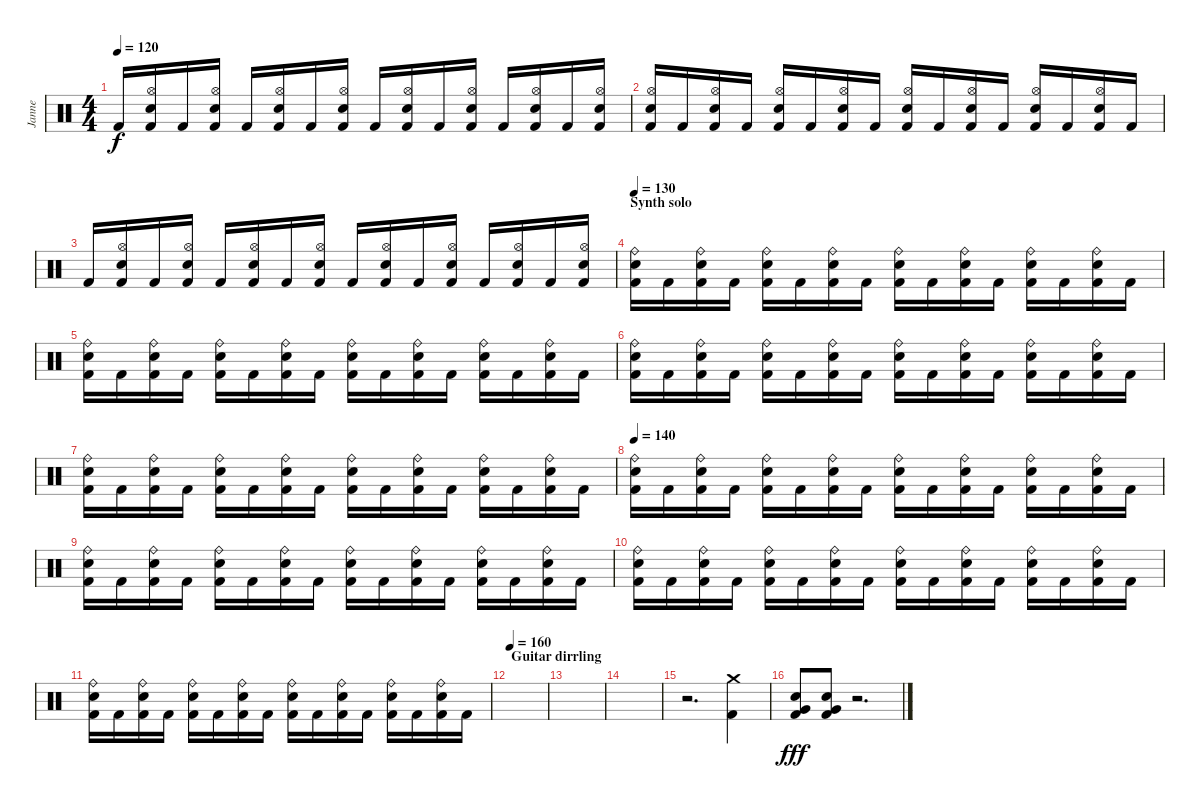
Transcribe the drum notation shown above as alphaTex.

\track ("Janne" "Janne") {instrument percussion}
\staff {score}
\articulation defaults
\ts (4 4)
\tempo 120
\clef neutral
\ks c "Kick (hit) 2".16{dy f}
("Hi-Hat (open)" "Electric Snare (hit)" "Kick (hit) 2").16 "Kick (hit) 2".16 ("Hi-Hat (open)" "Electric Snare (hit)" "Kick (hit) 2").16 "Kick (hit) 2".16 ("Hi-Hat (open)" "Electric Snare (hit)" "Kick (hit) 2").16 "Kick (hit) 2".16 ("Hi-Hat (open)" "Electric Snare (hit)" "Kick (hit) 2").16 "Kick (hit) 2".16 ("Hi-Hat (open)" "Electric Snare (hit)" "Kick (hit) 2").16 "Kick (hit) 2".16 ("Hi-Hat (open)" "Electric Snare (hit)" "Kick (hit) 2").16 "Kick (hit) 2".16 ("Hi-Hat (open)" "Electric Snare (hit)" "Kick (hit) 2").16 "Kick (hit) 2".16 ("Hi-Hat (open)" "Electric Snare (hit)" "Kick (hit) 2").16 |
("Hi-Hat (open)" "Electric Snare (hit)" "Kick (hit) 2").16 "Kick (hit) 2".16 ("Hi-Hat (open)" "Electric Snare (hit)" "Kick (hit) 2").16 "Kick (hit) 2".16 ("Hi-Hat (open)" "Electric Snare (hit)" "Kick (hit) 2").16 "Kick (hit) 2".16 ("Hi-Hat (open)" "Electric Snare (hit)" "Kick (hit) 2").16 "Kick (hit) 2".16 ("Hi-Hat (open)" "Electric Snare (hit)" "Kick (hit) 2").16 "Kick (hit) 2".16 ("Hi-Hat (open)" "Electric Snare (hit)" "Kick (hit) 2").16 "Kick (hit) 2".16 ("Hi-Hat (open)" "Electric Snare (hit)" "Kick (hit) 2").16 "Kick (hit) 2".16 ("Hi-Hat (open)" "Electric Snare (hit)" "Kick (hit) 2").16 "Kick (hit) 2".16 |
"Kick (hit) 2".16 ("Hi-Hat (open)" "Electric Snare (hit)" "Kick (hit) 2").16 "Kick (hit) 2".16 ("Hi-Hat (open)" "Electric Snare (hit)" "Kick (hit) 2").16 "Kick (hit) 2".16 ("Hi-Hat (open)" "Electric Snare (hit)" "Kick (hit) 2").16 "Kick (hit) 2".16 ("Hi-Hat (open)" "Electric Snare (hit)" "Kick (hit) 2").16 "Kick (hit) 2".16 ("Hi-Hat (open)" "Electric Snare (hit)" "Kick (hit) 2").16 "Kick (hit) 2".16 ("Hi-Hat (open)" "Electric Snare (hit)" "Kick (hit) 2").16 "Kick (hit) 2".16 ("Hi-Hat (open)" "Electric Snare (hit)" "Kick (hit) 2").16 "Kick (hit) 2".16 ("Hi-Hat (open)" "Electric Snare (hit)" "Kick (hit) 2").16 |
\section ("" "Synth solo")
\tempo 130
("Ride (bell)" "Electric Snare (hit)" "Kick (hit) 2").16 "Kick (hit) 2".16 ("Ride (bell)" "Electric Snare (hit)" "Kick (hit) 2").16 "Kick (hit) 2".16 ("Ride (bell)" "Electric Snare (hit)" "Kick (hit) 2").16 "Kick (hit) 2".16 ("Ride (bell)" "Electric Snare (hit)" "Kick (hit) 2").16 "Kick (hit) 2".16 ("Ride (bell)" "Electric Snare (hit)" "Kick (hit) 2").16 "Kick (hit) 2".16 ("Ride (bell)" "Electric Snare (hit)" "Kick (hit) 2").16 "Kick (hit) 2".16 ("Ride (bell)" "Electric Snare (hit)" "Kick (hit) 2").16 "Kick (hit) 2".16 ("Ride (bell)" "Electric Snare (hit)" "Kick (hit) 2").16 "Kick (hit) 2".16 |
("Ride (bell)" "Electric Snare (hit)" "Kick (hit) 2").16 "Kick (hit) 2".16 ("Ride (bell)" "Electric Snare (hit)" "Kick (hit) 2").16 "Kick (hit) 2".16 ("Ride (bell)" "Electric Snare (hit)" "Kick (hit) 2").16 "Kick (hit) 2".16 ("Ride (bell)" "Electric Snare (hit)" "Kick (hit) 2").16 "Kick (hit) 2".16 ("Ride (bell)" "Electric Snare (hit)" "Kick (hit) 2").16 "Kick (hit) 2".16 ("Ride (bell)" "Electric Snare (hit)" "Kick (hit) 2").16 "Kick (hit) 2".16 ("Ride (bell)" "Electric Snare (hit)" "Kick (hit) 2").16 "Kick (hit) 2".16 ("Ride (bell)" "Electric Snare (hit)" "Kick (hit) 2").16 "Kick (hit) 2".16 |
("Ride (bell)" "Electric Snare (hit)" "Kick (hit) 2").16 "Kick (hit) 2".16 ("Ride (bell)" "Electric Snare (hit)" "Kick (hit) 2").16 "Kick (hit) 2".16 ("Ride (bell)" "Electric Snare (hit)" "Kick (hit) 2").16 "Kick (hit) 2".16 ("Ride (bell)" "Electric Snare (hit)" "Kick (hit) 2").16 "Kick (hit) 2".16 ("Ride (bell)" "Electric Snare (hit)" "Kick (hit) 2").16 "Kick (hit) 2".16 ("Ride (bell)" "Electric Snare (hit)" "Kick (hit) 2").16 "Kick (hit) 2".16 ("Ride (bell)" "Electric Snare (hit)" "Kick (hit) 2").16 "Kick (hit) 2".16 ("Ride (bell)" "Electric Snare (hit)" "Kick (hit) 2").16 "Kick (hit) 2".16 |
("Ride (bell)" "Electric Snare (hit)" "Kick (hit) 2").16 "Kick (hit) 2".16 ("Ride (bell)" "Electric Snare (hit)" "Kick (hit) 2").16 "Kick (hit) 2".16 ("Ride (bell)" "Electric Snare (hit)" "Kick (hit) 2").16 "Kick (hit) 2".16 ("Ride (bell)" "Electric Snare (hit)" "Kick (hit) 2").16 "Kick (hit) 2".16 ("Ride (bell)" "Electric Snare (hit)" "Kick (hit) 2").16 "Kick (hit) 2".16 ("Ride (bell)" "Electric Snare (hit)" "Kick (hit) 2").16 "Kick (hit) 2".16 ("Ride (bell)" "Electric Snare (hit)" "Kick (hit) 2").16 "Kick (hit) 2".16 ("Ride (bell)" "Electric Snare (hit)" "Kick (hit) 2").16 "Kick (hit) 2".16 |
\tempo 140
("Ride (bell)" "Electric Snare (hit)" "Kick (hit) 2").16 "Kick (hit) 2".16 ("Ride (bell)" "Electric Snare (hit)" "Kick (hit) 2").16 "Kick (hit) 2".16 ("Ride (bell)" "Electric Snare (hit)" "Kick (hit) 2").16 "Kick (hit) 2".16 ("Ride (bell)" "Electric Snare (hit)" "Kick (hit) 2").16 "Kick (hit) 2".16 ("Ride (bell)" "Electric Snare (hit)" "Kick (hit) 2").16 "Kick (hit) 2".16 ("Ride (bell)" "Electric Snare (hit)" "Kick (hit) 2").16 "Kick (hit) 2".16 ("Ride (bell)" "Electric Snare (hit)" "Kick (hit) 2").16 "Kick (hit) 2".16 ("Ride (bell)" "Electric Snare (hit)" "Kick (hit) 2").16 "Kick (hit) 2".16 |
("Ride (bell)" "Electric Snare (hit)" "Kick (hit) 2").16 "Kick (hit) 2".16 ("Ride (bell)" "Electric Snare (hit)" "Kick (hit) 2").16 "Kick (hit) 2".16 ("Ride (bell)" "Electric Snare (hit)" "Kick (hit) 2").16 "Kick (hit) 2".16 ("Ride (bell)" "Electric Snare (hit)" "Kick (hit) 2").16 "Kick (hit) 2".16 ("Ride (bell)" "Electric Snare (hit)" "Kick (hit) 2").16 "Kick (hit) 2".16 ("Ride (bell)" "Electric Snare (hit)" "Kick (hit) 2").16 "Kick (hit) 2".16 ("Ride (bell)" "Electric Snare (hit)" "Kick (hit) 2").16 "Kick (hit) 2".16 ("Ride (bell)" "Electric Snare (hit)" "Kick (hit) 2").16 "Kick (hit) 2".16 |
("Ride (bell)" "Electric Snare (hit)" "Kick (hit) 2").16 "Kick (hit) 2".16 ("Ride (bell)" "Electric Snare (hit)" "Kick (hit) 2").16 "Kick (hit) 2".16 ("Ride (bell)" "Electric Snare (hit)" "Kick (hit) 2").16 "Kick (hit) 2".16 ("Ride (bell)" "Electric Snare (hit)" "Kick (hit) 2").16 "Kick (hit) 2".16 ("Ride (bell)" "Electric Snare (hit)" "Kick (hit) 2").16 "Kick (hit) 2".16 ("Ride (bell)" "Electric Snare (hit)" "Kick (hit) 2").16 "Kick (hit) 2".16 ("Ride (bell)" "Electric Snare (hit)" "Kick (hit) 2").16 "Kick (hit) 2".16 ("Ride (bell)" "Electric Snare (hit)" "Kick (hit) 2").16 "Kick (hit) 2".16 |
("Ride (bell)" "Electric Snare (hit)" "Kick (hit) 2").16 "Kick (hit) 2".16 ("Ride (bell)" "Electric Snare (hit)" "Kick (hit) 2").16 "Kick (hit) 2".16 ("Ride (bell)" "Electric Snare (hit)" "Kick (hit) 2").16 "Kick (hit) 2".16 ("Ride (bell)" "Electric Snare (hit)" "Kick (hit) 2").16 "Kick (hit) 2".16 ("Ride (bell)" "Electric Snare (hit)" "Kick (hit) 2").16 "Kick (hit) 2".16 ("Ride (bell)" "Electric Snare (hit)" "Kick (hit) 2").16 "Kick (hit) 2".16 ("Ride (bell)" "Electric Snare (hit)" "Kick (hit) 2").16 "Kick (hit) 2".16 ("Ride (bell)" "Electric Snare (hit)" "Kick (hit) 2").16 "Kick (hit) 2".16 |
\section ("" "Guitar dirrling")
\tempo 160
|
|
|
r.2{d} ("Crash medium (hit)" "Kick (hit) 2").4 |
("Very Low Tom (hit)" "Electric Snare (hit)" "Kick (hit) 2").8{dy fff} ("Very Low Tom (hit)" "Electric Snare (hit)" "Kick (hit) 2").8 r.2{d}
